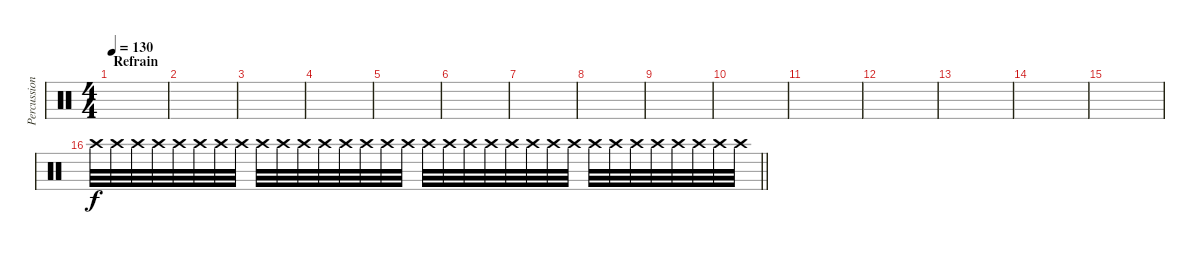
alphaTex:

\track ("Percussions" "Percussion") {instrument percussion}
\staff {score}
\articulation defaults
\ts (4 4)
\section ("" "Refrain")
\tempo 130
\clef neutral
\ks c
|
|
|
|
|
|
|
|
|
|
|
|
|
|
|
\barLineRight lightlight "Crash high (hit)".32{volume 16} "Crash high (hit)".32 "Crash high (hit)".32 "Crash high (hit)".32 "Crash high (hit)".32 "Crash high (hit)".32 "Crash high (hit)".32 "Crash high (hit)".32 "Crash high (hit)".32 "Crash high (hit)".32 "Crash high (hit)".32 "Crash high (hit)".32 "Crash high (hit)".32 "Crash high (hit)".32 "Crash high (hit)".32 "Crash high (hit)".32 "Crash high (hit)".32 "Crash high (hit)".32 "Crash high (hit)".32 "Crash high (hit)".32 "Crash high (hit)".32 "Crash high (hit)".32 "Crash high (hit)".32 "Crash high (hit)".32 "Crash high (hit)".32 "Crash high (hit)".32 "Crash high (hit)".32 "Crash high (hit)".32 "Crash high (hit)".32 "Crash high (hit)".32 "Crash high (hit)".32 "Crash high (hit)".32
